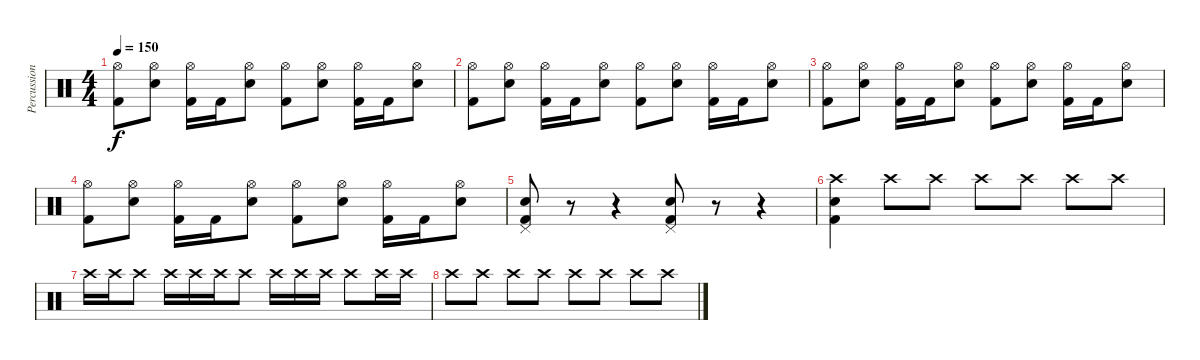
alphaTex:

\track ("Percussion" "Percussion") {instrument percussion}
\staff {score}
\articulation defaults
\ts (4 4)
\tempo 150
\clef neutral
\ks c
("Hi-Hat (open)" "Kick (hit) 2").8{dy f} ("Hi-Hat (open)" "Snare (hit) 2").8 ("Hi-Hat (open)" "Kick (hit) 2").16 "Kick (hit) 2".16 ("Hi-Hat (open)" "Snare (hit) 2").8 ("Hi-Hat (open)" "Kick (hit) 2").8 ("Hi-Hat (open)" "Snare (hit) 2").8 ("Hi-Hat (open)" "Kick (hit) 2").16 "Kick (hit) 2".16 ("Hi-Hat (open)" "Snare (hit) 2").8 |
("Hi-Hat (open)" "Kick (hit) 2").8 ("Hi-Hat (open)" "Snare (hit) 2").8 ("Hi-Hat (open)" "Kick (hit) 2").16 "Kick (hit) 2".16 ("Hi-Hat (open)" "Snare (hit) 2").8 ("Hi-Hat (open)" "Kick (hit) 2").8 ("Hi-Hat (open)" "Snare (hit) 2").8 ("Hi-Hat (open)" "Kick (hit) 2").16 "Kick (hit) 2".16 ("Hi-Hat (open)" "Snare (hit) 2").8 |
("Hi-Hat (open)" "Kick (hit) 2").8 ("Hi-Hat (open)" "Snare (hit) 2").8 ("Hi-Hat (open)" "Kick (hit) 2").16 "Kick (hit) 2".16 ("Hi-Hat (open)" "Snare (hit) 2").8 ("Hi-Hat (open)" "Kick (hit) 2").8 ("Hi-Hat (open)" "Snare (hit) 2").8 ("Hi-Hat (open)" "Kick (hit) 2").16 "Kick (hit) 2".16 ("Hi-Hat (open)" "Snare (hit) 2").8 |
("Hi-Hat (open)" "Kick (hit) 2").8 ("Hi-Hat (open)" "Snare (hit) 2").8 ("Hi-Hat (open)" "Kick (hit) 2").16 "Kick (hit) 2".16 ("Hi-Hat (open)" "Snare (hit) 2").8 ("Hi-Hat (open)" "Kick (hit) 2").8 ("Hi-Hat (open)" "Snare (hit) 2").8 ("Hi-Hat (open)" "Kick (hit) 2").16 "Kick (hit) 2".16 ("Hi-Hat (open)" "Snare (hit) 2").8 |
("Pedal Hi-Hat (hit)" "Snare (hit) 2" "Kick (hit) 2").8 r.8 r.4 ("Pedal Hi-Hat (hit)" "Snare (hit) 2" "Kick (hit) 2").8 r.8 r.4 |
("Crash high (hit)" "Snare (hit) 2" "Kick (hit) 2").4 "Crash high (hit)".8 "Crash high (hit)".8 "Crash high (hit)".8 "Crash high (hit)".8 "Crash high (hit)".8 "Crash high (hit)".8 |
"Crash high (hit)".16 "Crash high (hit)".16 "Crash high (hit)".8 "Crash high (hit)".16 "Crash high (hit)".16 "Crash high (hit)".16 "Crash high (hit)".8 "Crash high (hit)".16 "Crash high (hit)".16 "Crash high (hit)".16 "Crash high (hit)".8 "Crash high (hit)".16 "Crash high (hit)".16 |
"Crash high (hit)".8 "Crash high (hit)".8 "Crash high (hit)".8 "Crash high (hit)".8 "Crash high (hit)".8 "Crash high (hit)".8 "Crash high (hit)".8 "Crash high (hit)".8
